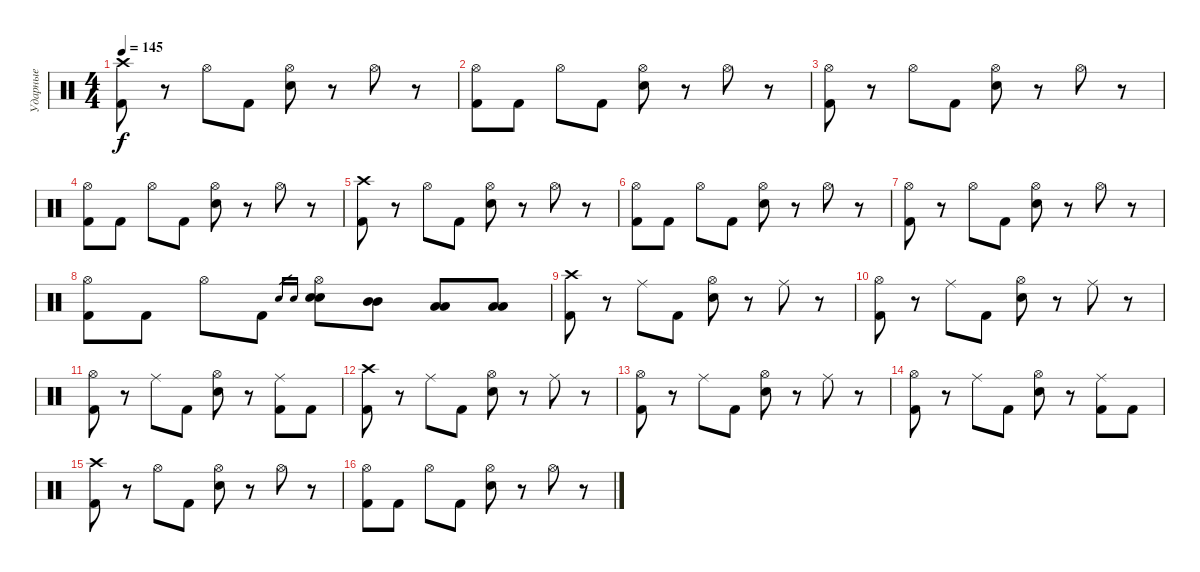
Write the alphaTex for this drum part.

\track ("Ударные" "Ударные") {instrument percussion}
\staff {score}
\articulation defaults
\ts (4 4)
\tempo 145
\clef neutral
\ks c
("Crash high (hit)" "Kick (hit) 2").8{dy f} r.8 "Hi-Hat (open)".8 "Kick (hit) 2".8 ("Hi-Hat (open)" "Snare (hit) 2").8 r.8 "Hi-Hat (open)".8 r.8 |
("Hi-Hat (open)" "Kick (hit) 2").8 "Kick (hit) 2".8 "Hi-Hat (open)".8 "Kick (hit) 2".8 ("Hi-Hat (open)" "Snare (hit) 2").8 r.8 "Hi-Hat (open)".8 r.8 |
("Hi-Hat (open)" "Kick (hit) 2").8 r.8 "Hi-Hat (open)".8 "Kick (hit) 2".8 ("Hi-Hat (open)" "Snare (hit) 2").8 r.8 "Hi-Hat (open)".8 r.8 |
("Hi-Hat (open)" "Kick (hit) 2").8 "Kick (hit) 2".8 "Hi-Hat (open)".8 "Kick (hit) 2".8 ("Hi-Hat (open)" "Snare (hit) 2").8 r.8 "Hi-Hat (open)".8 r.8 |
("Crash high (hit)" "Kick (hit) 2").8 r.8 "Hi-Hat (open)".8 "Kick (hit) 2".8 ("Hi-Hat (open)" "Snare (hit) 2").8 r.8 "Hi-Hat (open)".8 r.8 |
("Hi-Hat (open)" "Kick (hit) 2").8 "Kick (hit) 2".8 "Hi-Hat (open)".8 "Kick (hit) 2".8 ("Hi-Hat (open)" "Snare (hit) 2").8 r.8 "Hi-Hat (open)".8 r.8 |
("Hi-Hat (open)" "Kick (hit) 2").8 r.8 "Hi-Hat (open)".8 "Kick (hit) 2".8 ("Hi-Hat (open)" "Snare (hit) 2").8 r.8 "Hi-Hat (open)".8 r.8 |
("Hi-Hat (open)" "Kick (hit) 2").8 "Kick (hit) 2".8 "Hi-Hat (open)".8 "Kick (hit) 2".8 "Snare (hit) 2".16{gr} "Snare (hit) 2".16{gr} ("Hi-Hat (open)" "Snare (hit) 2" "Snare (hit) 2").8 ("Mid Tom (hit)" "Mid Tom (hit)").8 ("Low Tom (hit)" "Low Tom (hit)").8 ("Low Floor Tom (hit)" "Low Floor Tom (hit)").8 |
("Crash high (hit)" "Kick (hit) 2").8 r.8 "Ride (middle)".8 "Kick (hit) 2".8 ("Hi-Hat (open)" "Snare (hit) 2").8 r.8 "Ride (middle)".8 r.8 |
("Hi-Hat (open)" "Kick (hit) 2").8 r.8 "Ride (middle)".8 "Kick (hit) 2".8 ("Hi-Hat (open)" "Snare (hit) 2").8 r.8 "Ride (middle)".8 r.8 |
("Hi-Hat (open)" "Kick (hit) 2").8 r.8 "Ride (middle)".8 "Kick (hit) 2".8 ("Hi-Hat (open)" "Snare (hit) 2").8 r.8 ("Ride (middle)" "Kick (hit) 2").8 "Kick (hit) 2".8 |
("Crash high (hit)" "Kick (hit) 2").8 r.8 "Ride (middle)".8 "Kick (hit) 2".8 ("Hi-Hat (open)" "Snare (hit) 2").8 r.8 "Ride (middle)".8 r.8 |
("Hi-Hat (open)" "Kick (hit) 2").8 r.8 "Ride (middle)".8 "Kick (hit) 2".8 ("Hi-Hat (open)" "Snare (hit) 2").8 r.8 "Ride (middle)".8 r.8 |
("Hi-Hat (open)" "Kick (hit) 2").8 r.8 "Ride (middle)".8 "Kick (hit) 2".8 ("Hi-Hat (open)" "Snare (hit) 2").8 r.8 ("Ride (middle)" "Kick (hit) 2").8 "Kick (hit) 2".8 |
("Crash high (hit)" "Kick (hit) 2").8 r.8 "Hi-Hat (open)".8 "Kick (hit) 2".8 ("Hi-Hat (open)" "Snare (hit) 2").8 r.8 "Hi-Hat (open)".8 r.8 |
("Hi-Hat (open)" "Kick (hit) 2").8 "Kick (hit) 2".8 "Hi-Hat (open)".8 "Kick (hit) 2".8 ("Hi-Hat (open)" "Snare (hit) 2").8 r.8 "Hi-Hat (open)".8 r.8
